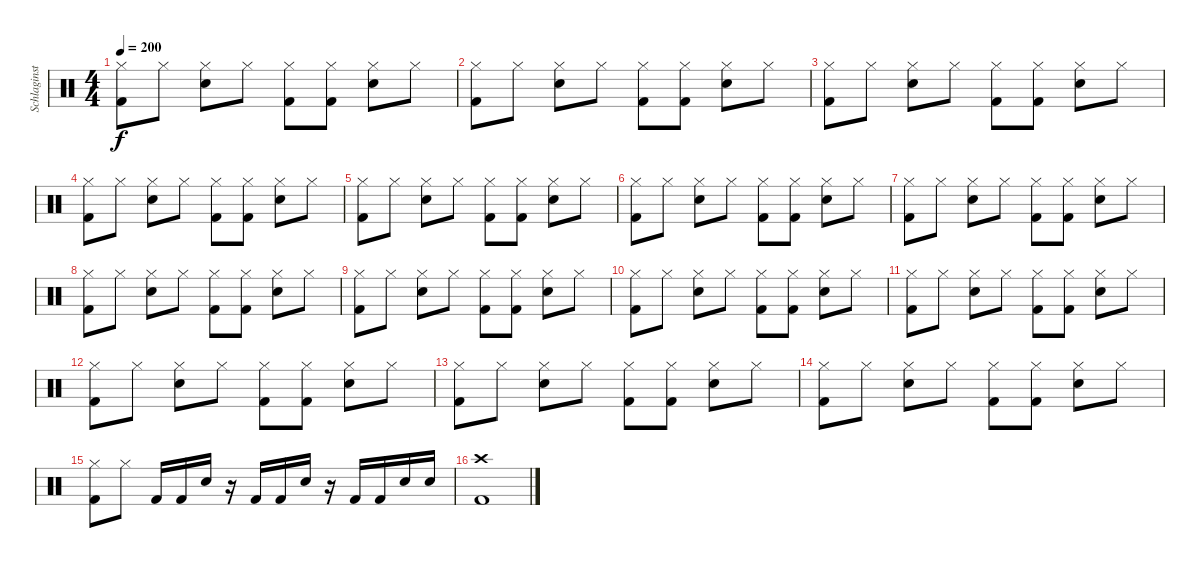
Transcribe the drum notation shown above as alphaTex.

\track ("Schlaginstrumente - Auswahl" "Schlaginst") {instrument percussion}
\staff {score}
\articulation defaults
\ts (4 4)
\tempo 200
\clef neutral
\ks c
("Hi-Hat (closed)" "Kick (hit) 2").8{dy f} "Hi-Hat (closed)".8 ("Hi-Hat (closed)" "Electric Snare (hit)").8 "Hi-Hat (closed)".8 ("Hi-Hat (closed)" "Kick (hit) 2").8 ("Hi-Hat (closed)" "Kick (hit) 2").8 ("Hi-Hat (closed)" "Electric Snare (hit)").8 "Hi-Hat (closed)".8 |
("Hi-Hat (closed)" "Kick (hit) 2").8 "Hi-Hat (closed)".8 ("Hi-Hat (closed)" "Electric Snare (hit)").8 "Hi-Hat (closed)".8 ("Hi-Hat (closed)" "Kick (hit) 2").8 ("Hi-Hat (closed)" "Kick (hit) 2").8 ("Hi-Hat (closed)" "Electric Snare (hit)").8 "Hi-Hat (closed)".8 |
("Hi-Hat (closed)" "Kick (hit) 2").8 "Hi-Hat (closed)".8 ("Hi-Hat (closed)" "Electric Snare (hit)").8 "Hi-Hat (closed)".8 ("Hi-Hat (closed)" "Kick (hit) 2").8 ("Hi-Hat (closed)" "Kick (hit) 2").8 ("Hi-Hat (closed)" "Electric Snare (hit)").8 "Hi-Hat (closed)".8 |
("Hi-Hat (closed)" "Kick (hit) 2").8 "Hi-Hat (closed)".8 ("Hi-Hat (closed)" "Electric Snare (hit)").8 "Hi-Hat (closed)".8 ("Hi-Hat (closed)" "Kick (hit) 2").8 ("Hi-Hat (closed)" "Kick (hit) 2").8 ("Hi-Hat (closed)" "Electric Snare (hit)").8 "Hi-Hat (closed)".8 |
("Hi-Hat (closed)" "Kick (hit) 2").8 "Hi-Hat (closed)".8 ("Hi-Hat (closed)" "Electric Snare (hit)").8 "Hi-Hat (closed)".8 ("Hi-Hat (closed)" "Kick (hit) 2").8 ("Hi-Hat (closed)" "Kick (hit) 2").8 ("Hi-Hat (closed)" "Electric Snare (hit)").8 "Hi-Hat (closed)".8 |
("Hi-Hat (closed)" "Kick (hit) 2").8 "Hi-Hat (closed)".8 ("Hi-Hat (closed)" "Electric Snare (hit)").8 "Hi-Hat (closed)".8 ("Hi-Hat (closed)" "Kick (hit) 2").8 ("Hi-Hat (closed)" "Kick (hit) 2").8 ("Hi-Hat (closed)" "Electric Snare (hit)").8 "Hi-Hat (closed)".8 |
("Hi-Hat (closed)" "Kick (hit) 2").8 "Hi-Hat (closed)".8 ("Hi-Hat (closed)" "Electric Snare (hit)").8 "Hi-Hat (closed)".8 ("Hi-Hat (closed)" "Kick (hit) 2").8 ("Hi-Hat (closed)" "Kick (hit) 2").8 ("Hi-Hat (closed)" "Electric Snare (hit)").8 "Hi-Hat (closed)".8 |
("Hi-Hat (closed)" "Kick (hit) 2").8 "Hi-Hat (closed)".8 ("Hi-Hat (closed)" "Electric Snare (hit)").8 "Hi-Hat (closed)".8 ("Hi-Hat (closed)" "Kick (hit) 2").8 ("Hi-Hat (closed)" "Kick (hit) 2").8 ("Hi-Hat (closed)" "Electric Snare (hit)").8 "Hi-Hat (closed)".8 |
("Hi-Hat (closed)" "Kick (hit) 2").8 "Hi-Hat (closed)".8 ("Hi-Hat (closed)" "Electric Snare (hit)").8 "Hi-Hat (closed)".8 ("Hi-Hat (closed)" "Kick (hit) 2").8 ("Hi-Hat (closed)" "Kick (hit) 2").8 ("Hi-Hat (closed)" "Electric Snare (hit)").8 "Hi-Hat (closed)".8 |
("Hi-Hat (closed)" "Kick (hit) 2").8 "Hi-Hat (closed)".8 ("Hi-Hat (closed)" "Electric Snare (hit)").8 "Hi-Hat (closed)".8 ("Hi-Hat (closed)" "Kick (hit) 2").8 ("Hi-Hat (closed)" "Kick (hit) 2").8 ("Hi-Hat (closed)" "Electric Snare (hit)").8 "Hi-Hat (closed)".8 |
("Hi-Hat (closed)" "Kick (hit) 2").8 "Hi-Hat (closed)".8 ("Hi-Hat (closed)" "Electric Snare (hit)").8 "Hi-Hat (closed)".8 ("Hi-Hat (closed)" "Kick (hit) 2").8 ("Hi-Hat (closed)" "Kick (hit) 2").8 ("Hi-Hat (closed)" "Electric Snare (hit)").8 "Hi-Hat (closed)".8 |
("Hi-Hat (closed)" "Kick (hit) 2").8 "Hi-Hat (closed)".8 ("Hi-Hat (closed)" "Electric Snare (hit)").8 "Hi-Hat (closed)".8 ("Hi-Hat (closed)" "Kick (hit) 2").8 ("Hi-Hat (closed)" "Kick (hit) 2").8 ("Hi-Hat (closed)" "Electric Snare (hit)").8 "Hi-Hat (closed)".8 |
("Hi-Hat (closed)" "Kick (hit) 2").8 "Hi-Hat (closed)".8 ("Hi-Hat (closed)" "Electric Snare (hit)").8 "Hi-Hat (closed)".8 ("Hi-Hat (closed)" "Kick (hit) 2").8 ("Hi-Hat (closed)" "Kick (hit) 2").8 ("Hi-Hat (closed)" "Electric Snare (hit)").8 "Hi-Hat (closed)".8 |
("Hi-Hat (closed)" "Kick (hit) 2").8 "Hi-Hat (closed)".8 ("Hi-Hat (closed)" "Electric Snare (hit)").8 "Hi-Hat (closed)".8 ("Hi-Hat (closed)" "Kick (hit) 2").8 ("Hi-Hat (closed)" "Kick (hit) 2").8 ("Hi-Hat (closed)" "Electric Snare (hit)").8 "Hi-Hat (closed)".8 |
("Hi-Hat (closed)" "Kick (hit) 2").8 "Hi-Hat (closed)".8 "Kick (hit) 2".16 "Kick (hit) 2".16 "Electric Snare (hit)".16 r.16 "Kick (hit) 2".16 "Kick (hit) 2".16 "Electric Snare (hit)".16 r.16 "Kick (hit) 2".16 "Kick (hit) 2".16 "Electric Snare (hit)".16 "Electric Snare (hit)".16 |
("Kick (hit) 2" "Crash high (hit)").1
